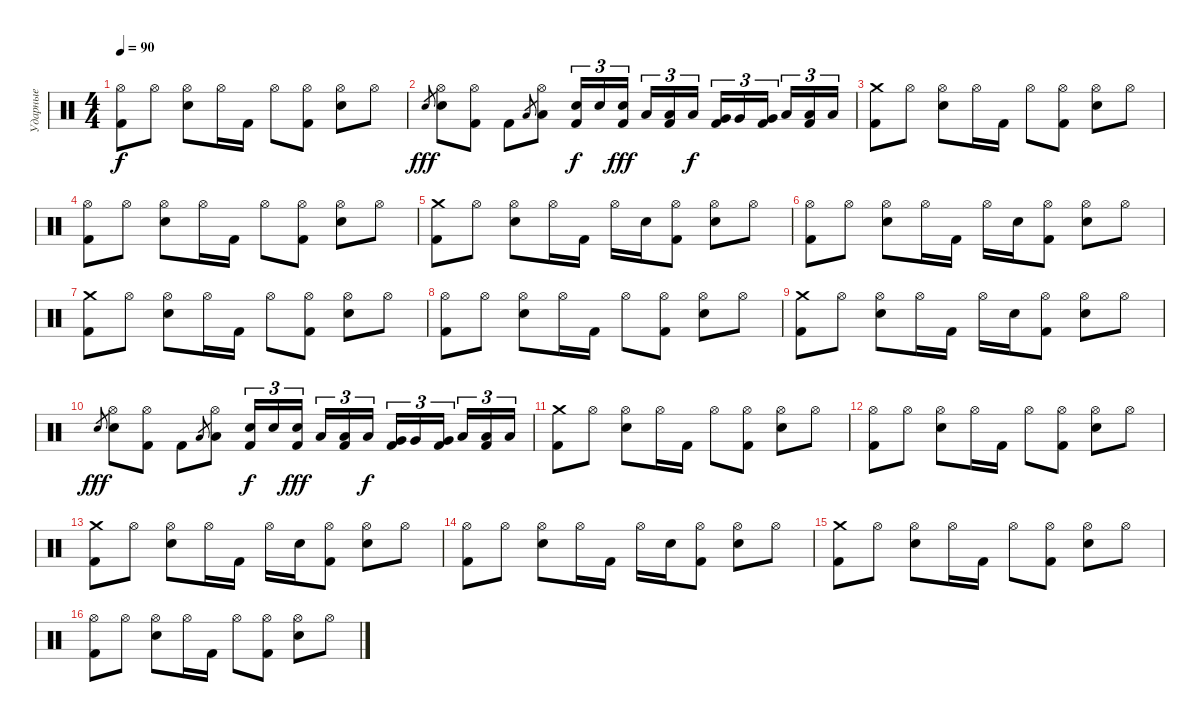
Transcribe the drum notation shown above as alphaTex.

\track ("Ударные" "Ударные") {instrument percussion}
\staff {score}
\articulation defaults
\ts (4 4)
\tempo 90
\clef neutral
\ks c
("Hi-Hat (open)" "Kick (hit) 2").8{dy f} "Hi-Hat (open)".8 ("Hi-Hat (open)" "Snare (hit) 2").8 "Hi-Hat (open)".16 "Kick (hit) 2".16 "Hi-Hat (open)".8 ("Hi-Hat (open)" "Kick (hit) 2").8 ("Hi-Hat (open)" "Snare (hit) 2").8 "Hi-Hat (open)".8 |
"Snare (hit) 2".8{gr dy fff} ("Hi-Hat (open)" "Snare (hit) 2").8 ("Hi-Hat (open)" "Kick (hit) 2").8 "Kick (hit) 2".8 "Low Tom (hit)".8{gr} ("Hi-Hat (open)" "Low Tom (hit)").8 ("Snare (hit) 2" "Kick (hit) 2").16{tu (3 2) dy f} "Snare (hit) 2".16{tu (3 2)} ("Snare (hit) 2" "Kick (hit) 2").16{tu (3 2) dy fff beam splitsecondary} "Low Tom (hit)".16{tu (3 2)} ("Low Tom (hit)" "Kick (hit) 2").16{tu (3 2)} "Low Tom (hit)".16{tu (3 2) dy f} ("Very Low Tom (hit)" "Kick (hit) 2").16{tu (3 2)} "Very Low Tom (hit)".16{tu (3 2)} ("Very Low Tom (hit)" "Kick (hit) 2").16{tu (3 2) beam splitsecondary} "Low Floor Tom (hit)".16{tu (3 2)} ("Low Floor Tom (hit)" "Kick (hit) 2").16{tu (3 2)} "Low Floor Tom (hit)".16{tu (3 2)} |
("Crash medium (hit)" "Kick (hit) 2").8 "Hi-Hat (open)".8 ("Hi-Hat (open)" "Snare (hit) 2").8 "Hi-Hat (open)".16 "Kick (hit) 2".16 "Hi-Hat (open)".8 ("Hi-Hat (open)" "Kick (hit) 2").8 ("Hi-Hat (open)" "Snare (hit) 2").8 "Hi-Hat (open)".8 |
("Hi-Hat (open)" "Kick (hit) 2").8 "Hi-Hat (open)".8 ("Hi-Hat (open)" "Snare (hit) 2").8 "Hi-Hat (open)".16 "Kick (hit) 2".16 "Hi-Hat (open)".8 ("Hi-Hat (open)" "Kick (hit) 2").8 ("Hi-Hat (open)" "Snare (hit) 2").8 "Hi-Hat (open)".8 |
("Crash medium (hit)" "Kick (hit) 2").8 "Hi-Hat (open)".8 ("Hi-Hat (open)" "Snare (hit) 2").8 "Hi-Hat (open)".16 "Kick (hit) 2".16 "Hi-Hat (open)".16 "Snare (hit) 2".16 ("Hi-Hat (open)" "Kick (hit) 2").8 ("Hi-Hat (open)" "Snare (hit) 2").8 "Hi-Hat (open)".8 |
("Hi-Hat (open)" "Kick (hit) 2").8 "Hi-Hat (open)".8 ("Hi-Hat (open)" "Snare (hit) 2").8 "Hi-Hat (open)".16 "Kick (hit) 2".16 "Hi-Hat (open)".16 "Snare (hit) 2".16 ("Hi-Hat (open)" "Kick (hit) 2").8 ("Hi-Hat (open)" "Snare (hit) 2").8 "Hi-Hat (open)".8 |
("Crash medium (hit)" "Kick (hit) 2").8 "Hi-Hat (open)".8 ("Hi-Hat (open)" "Snare (hit) 2").8 "Hi-Hat (open)".16 "Kick (hit) 2".16 "Hi-Hat (open)".8 ("Hi-Hat (open)" "Kick (hit) 2").8 ("Hi-Hat (open)" "Snare (hit) 2").8 "Hi-Hat (open)".8 |
("Hi-Hat (open)" "Kick (hit) 2").8 "Hi-Hat (open)".8 ("Hi-Hat (open)" "Snare (hit) 2").8 "Hi-Hat (open)".16 "Kick (hit) 2".16 "Hi-Hat (open)".8 ("Hi-Hat (open)" "Kick (hit) 2").8 ("Hi-Hat (open)" "Snare (hit) 2").8 "Hi-Hat (open)".8 |
("Crash medium (hit)" "Kick (hit) 2").8 "Hi-Hat (open)".8 ("Hi-Hat (open)" "Snare (hit) 2").8 "Hi-Hat (open)".16 "Kick (hit) 2".16 "Hi-Hat (open)".16 "Snare (hit) 2".16 ("Hi-Hat (open)" "Kick (hit) 2").8 ("Hi-Hat (open)" "Snare (hit) 2").8 "Hi-Hat (open)".8 |
"Snare (hit) 2".8{gr dy fff} ("Hi-Hat (open)" "Snare (hit) 2").8 ("Hi-Hat (open)" "Kick (hit) 2").8 "Kick (hit) 2".8 "Low Tom (hit)".8{gr} ("Hi-Hat (open)" "Low Tom (hit)").8 ("Snare (hit) 2" "Kick (hit) 2").16{tu (3 2) dy f} "Snare (hit) 2".16{tu (3 2)} ("Snare (hit) 2" "Kick (hit) 2").16{tu (3 2) dy fff beam splitsecondary} "Low Tom (hit)".16{tu (3 2)} ("Low Tom (hit)" "Kick (hit) 2").16{tu (3 2)} "Low Tom (hit)".16{tu (3 2) dy f} ("Very Low Tom (hit)" "Kick (hit) 2").16{tu (3 2)} "Very Low Tom (hit)".16{tu (3 2)} ("Very Low Tom (hit)" "Kick (hit) 2").16{tu (3 2) beam splitsecondary} "Low Floor Tom (hit)".16{tu (3 2)} ("Low Floor Tom (hit)" "Kick (hit) 2").16{tu (3 2)} "Low Floor Tom (hit)".16{tu (3 2)} |
("Crash medium (hit)" "Kick (hit) 2").8 "Hi-Hat (open)".8 ("Hi-Hat (open)" "Snare (hit) 2").8 "Hi-Hat (open)".16 "Kick (hit) 2".16 "Hi-Hat (open)".8 ("Hi-Hat (open)" "Kick (hit) 2").8 ("Hi-Hat (open)" "Snare (hit) 2").8 "Hi-Hat (open)".8 |
("Hi-Hat (open)" "Kick (hit) 2").8 "Hi-Hat (open)".8 ("Hi-Hat (open)" "Snare (hit) 2").8 "Hi-Hat (open)".16 "Kick (hit) 2".16 "Hi-Hat (open)".8 ("Hi-Hat (open)" "Kick (hit) 2").8 ("Hi-Hat (open)" "Snare (hit) 2").8 "Hi-Hat (open)".8 |
("Crash medium (hit)" "Kick (hit) 2").8 "Hi-Hat (open)".8 ("Hi-Hat (open)" "Snare (hit) 2").8 "Hi-Hat (open)".16 "Kick (hit) 2".16 "Hi-Hat (open)".16 "Snare (hit) 2".16 ("Hi-Hat (open)" "Kick (hit) 2").8 ("Hi-Hat (open)" "Snare (hit) 2").8 "Hi-Hat (open)".8 |
("Hi-Hat (open)" "Kick (hit) 2").8 "Hi-Hat (open)".8 ("Hi-Hat (open)" "Snare (hit) 2").8 "Hi-Hat (open)".16 "Kick (hit) 2".16 "Hi-Hat (open)".16 "Snare (hit) 2".16 ("Hi-Hat (open)" "Kick (hit) 2").8 ("Hi-Hat (open)" "Snare (hit) 2").8 "Hi-Hat (open)".8 |
("Crash medium (hit)" "Kick (hit) 2").8 "Hi-Hat (open)".8 ("Hi-Hat (open)" "Snare (hit) 2").8 "Hi-Hat (open)".16 "Kick (hit) 2".16 "Hi-Hat (open)".8 ("Hi-Hat (open)" "Kick (hit) 2").8 ("Hi-Hat (open)" "Snare (hit) 2").8 "Hi-Hat (open)".8 |
("Hi-Hat (open)" "Kick (hit) 2").8 "Hi-Hat (open)".8 ("Hi-Hat (open)" "Snare (hit) 2").8 "Hi-Hat (open)".16 "Kick (hit) 2".16 "Hi-Hat (open)".8 ("Hi-Hat (open)" "Kick (hit) 2").8 ("Hi-Hat (open)" "Snare (hit) 2").8 "Hi-Hat (open)".8
